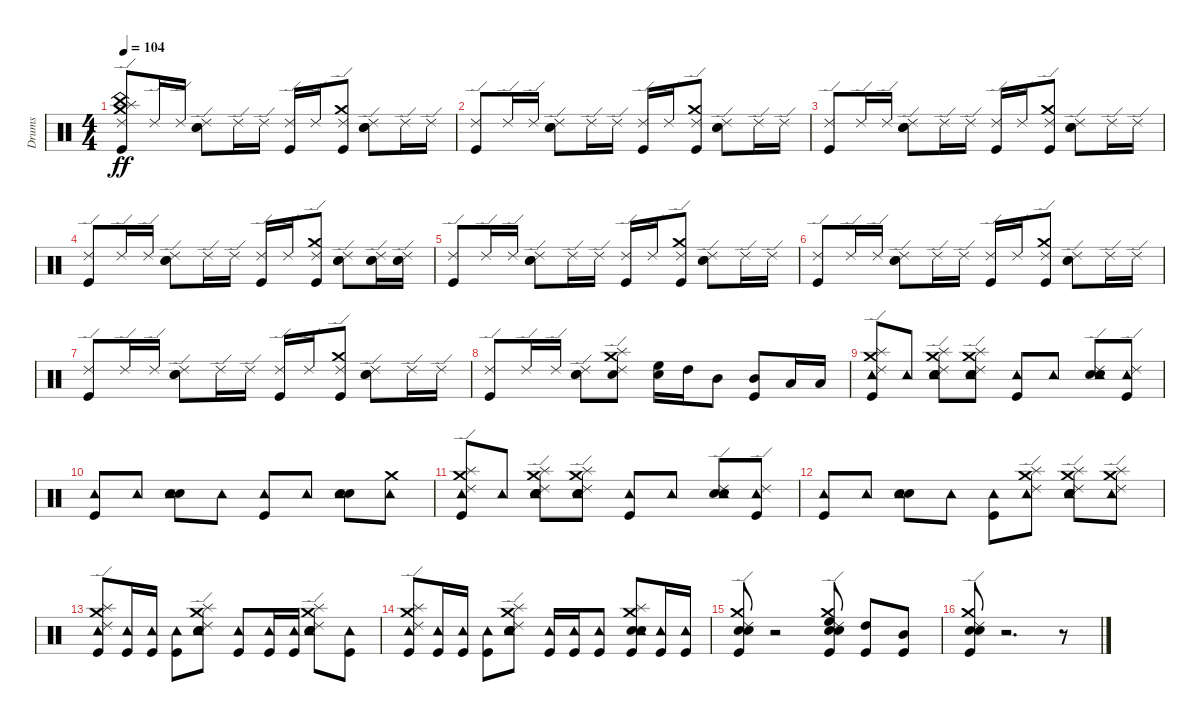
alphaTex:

\track ("Drums" "Drums") {instrument percussion}
\staff {score}
\articulation defaults
\ts (4 4)
\tempo 104
\clef neutral
\ks c
("Kick (hit)" "China (hit)" "Splash (hit)" "Crash medium (hit)" "Ride (edge) 2").8{dy ff} "Ride (edge) 2".16 "Ride (edge) 2".16 ("Snare (hit) 2" "Electric Snare (hit)" "Ride (edge) 2").8 "Ride (edge) 2".16 "Ride (edge) 2".16 ("Kick (hit)" "Ride (edge) 2").16 "Ride (edge) 2".16 ("Kick (hit)" "Crash medium (hit)" "Ride (edge) 2").8 ("Snare (hit) 2" "Electric Snare (hit)" "Ride (edge) 2").8 "Ride (edge) 2".16 "Ride (edge) 2".16 |
("Kick (hit)" "Ride (edge) 2").8 "Ride (edge) 2".16 "Ride (edge) 2".16 ("Snare (hit) 2" "Electric Snare (hit)" "Ride (edge) 2").8 "Ride (edge) 2".16 "Ride (edge) 2".16 ("Kick (hit)" "Ride (edge) 2").16 "Ride (edge) 2".16 ("Kick (hit)" "Crash medium (hit)" "Ride (edge) 2").8 ("Snare (hit) 2" "Electric Snare (hit)" "Ride (edge) 2").8 "Ride (edge) 2".16 "Ride (edge) 2".16 |
("Kick (hit)" "Ride (edge) 2").8 "Ride (edge) 2".16 "Ride (edge) 2".16 ("Snare (hit) 2" "Electric Snare (hit)" "Ride (edge) 2").8 "Ride (edge) 2".16 "Ride (edge) 2".16 ("Kick (hit)" "Ride (edge) 2").16 "Ride (edge) 2".16 ("Kick (hit)" "Crash medium (hit)" "Ride (edge) 2").8 ("Snare (hit) 2" "Electric Snare (hit)" "Ride (edge) 2").8 "Ride (edge) 2".16 "Ride (edge) 2".16 |
("Kick (hit)" "Ride (edge) 2").8 "Ride (edge) 2".16 "Ride (edge) 2".16 ("Snare (hit) 2" "Electric Snare (hit)" "Ride (edge) 2").8 "Ride (edge) 2".16 "Ride (edge) 2".16 ("Kick (hit)" "Ride (edge) 2").16 "Ride (edge) 2".16 ("Kick (hit)" "Crash medium (hit)" "Ride (edge) 2").8 ("Snare (hit) 2" "Electric Snare (hit)" "Ride (edge) 2").8 ("Snare (hit) 2" "Electric Snare (hit)" "Ride (edge) 2").16 ("Snare (hit) 2" "Electric Snare (hit)" "Ride (edge) 2").16 |
("Kick (hit)" "Ride (edge) 2").8 "Ride (edge) 2".16 "Ride (edge) 2".16 ("Snare (hit) 2" "Electric Snare (hit)" "Ride (edge) 2").8 "Ride (edge) 2".16 "Ride (edge) 2".16 ("Kick (hit)" "Ride (edge) 2").16 "Ride (edge) 2".16 ("Kick (hit)" "Crash medium (hit)" "Ride (edge) 2").8 ("Snare (hit) 2" "Electric Snare (hit)" "Ride (edge) 2").8 "Ride (edge) 2".16 "Ride (edge) 2".16 |
("Kick (hit)" "Ride (edge) 2").8 "Ride (edge) 2".16 "Ride (edge) 2".16 ("Snare (hit) 2" "Electric Snare (hit)" "Ride (edge) 2").8 "Ride (edge) 2".16 "Ride (edge) 2".16 ("Kick (hit)" "Ride (edge) 2").16 "Ride (edge) 2".16 ("Kick (hit)" "Crash medium (hit)" "Ride (edge) 2").8 ("Snare (hit) 2" "Electric Snare (hit)" "Ride (edge) 2").8 "Ride (edge) 2".16 "Ride (edge) 2".16 |
("Kick (hit)" "Ride (edge) 2").8 "Ride (edge) 2".16 "Ride (edge) 2".16 ("Snare (hit) 2" "Electric Snare (hit)" "Ride (edge) 2").8 "Ride (edge) 2".16 "Ride (edge) 2".16 ("Kick (hit)" "Ride (edge) 2").16 "Ride (edge) 2".16 ("Kick (hit)" "Crash medium (hit)" "Ride (edge) 2").8 ("Snare (hit) 2" "Electric Snare (hit)" "Ride (edge) 2").8 "Ride (edge) 2".16 "Ride (edge) 2".16 |
("Kick (hit)" "Ride (edge) 2").8 "Ride (edge) 2".16 "Ride (edge) 2".16 ("Snare (hit) 2" "Electric Snare (hit)" "Ride (edge) 2").8 ("Electric Snare (hit)" "Splash (hit)" "Crash medium (hit)" "Ride (edge) 2").8 ("Electric Snare (hit)" "High Floor Tom (hit)").16 "High Tom (hit)".16 "Mid Tom (hit)".8 ("Kick (hit)" "Mid Tom (hit)").8 "Low Tom (hit)".16 "Low Tom (hit)".16 |
("Kick (hit)" "Tambourine (hit)" "Splash (hit)" "Crash medium (hit)" "Ride (edge) 2").8 "Tambourine (hit)".8 ("Snare (hit) 2" "Electric Snare (hit)" "Tambourine (hit)" "Splash (hit)" "Crash medium (hit)" "Ride (edge) 2").8 ("Snare (hit) 2" "Electric Snare (hit)" "Tambourine (hit)" "Splash (hit)" "Crash medium (hit)" "Ride (edge) 2").8 ("Kick (hit)" "Tambourine (hit)").8 "Tambourine (hit)".8 ("Snare (hit) 2" "Electric Snare (hit)" "Tambourine (hit)" "Ride (edge) 2").8 ("Kick (hit)" "Tambourine (hit)" "Ride (edge) 2").8 |
("Kick (hit)" "Tambourine (hit)").8 "Tambourine (hit)".8 ("Snare (hit) 2" "Electric Snare (hit)" "Tambourine (hit)").8 "Tambourine (hit)".8 ("Kick (hit)" "Tambourine (hit)").8 "Tambourine (hit)".8 ("Snare (hit) 2" "Electric Snare (hit)" "Tambourine (hit)").8 ("Tambourine (hit)" "Crash medium (hit)").8 |
("Kick (hit)" "Tambourine (hit)" "Splash (hit)" "Crash medium (hit)" "Ride (edge) 2").8 "Tambourine (hit)".8 ("Snare (hit) 2" "Electric Snare (hit)" "Tambourine (hit)" "Splash (hit)" "Crash medium (hit)" "Ride (edge) 2").8 ("Snare (hit) 2" "Electric Snare (hit)" "Tambourine (hit)" "Splash (hit)" "Crash medium (hit)" "Ride (edge) 2").8 ("Kick (hit)" "Tambourine (hit)").8 "Tambourine (hit)".8 ("Snare (hit) 2" "Electric Snare (hit)" "Tambourine (hit)" "Ride (edge) 2").8 ("Kick (hit)" "Tambourine (hit)" "Ride (edge) 2").8 |
("Kick (hit)" "Tambourine (hit)").8 "Tambourine (hit)".8 ("Snare (hit) 2" "Electric Snare (hit)" "Tambourine (hit)").8 "Tambourine (hit)".8 ("Kick (hit)" "Tambourine (hit)").8 ("Tambourine (hit)" "Splash (hit)" "Crash medium (hit)" "Ride (edge) 2").8 ("Snare (hit) 2" "Electric Snare (hit)" "Tambourine (hit)" "Splash (hit)" "Crash medium (hit)" "Ride (edge) 2").8 ("Tambourine (hit)" "Splash (hit)" "Crash medium (hit)" "Ride (edge) 2").8 |
("Kick (hit)" "Tambourine (hit)" "Splash (hit)" "Crash medium (hit)" "Ride (edge) 2").8 ("Kick (hit)" "Tambourine (hit)").16 ("Kick (hit)" "Tambourine (hit)").16 ("Kick (hit)" "Tambourine (hit)").8 ("Snare (hit) 2" "Electric Snare (hit)" "Tambourine (hit)" "Splash (hit)" "Crash medium (hit)" "Ride (edge) 2").8 ("Kick (hit)" "Tambourine (hit)").8 ("Kick (hit)" "Tambourine (hit)").16 ("Kick (hit)" "Tambourine (hit)").16 ("Snare (hit) 2" "Electric Snare (hit)" "Tambourine (hit)" "Splash (hit)" "Crash medium (hit)" "Ride (edge) 2").8 ("Kick (hit)" "Tambourine (hit)").8 |
("Kick (hit)" "Tambourine (hit)" "Splash (hit)" "Crash medium (hit)" "Ride (edge) 2").8 ("Kick (hit)" "Tambourine (hit)").16 ("Kick (hit)" "Tambourine (hit)").16 ("Kick (hit)" "Tambourine (hit)").8 ("Snare (hit) 2" "Electric Snare (hit)" "Tambourine (hit)" "Splash (hit)" "Crash medium (hit)" "Ride (edge) 2").8 ("Kick (hit)" "Tambourine (hit)").16 ("Kick (hit)" "Tambourine (hit)").16 ("Kick (hit)" "Tambourine (hit)").8 ("Kick (hit)" "Snare (hit) 2" "Electric Snare (hit)" "Tambourine (hit)" "Splash (hit)" "Crash medium (hit)").8 ("Kick (hit)" "Tambourine (hit)").16 ("Kick (hit)" "Tambourine (hit)").16 |
("Kick (hit)" "Snare (hit) 2" "Electric Snare (hit)" "Crash medium (hit)" "Ride (edge) 2").8 r.2 ("Kick (hit)" "Snare (hit) 2" "Electric Snare (hit)" "High Floor Tom (hit)" "Crash medium (hit)" "Ride (edge) 2").8 ("Kick (hit)" "High Tom (hit)").8 ("Kick (hit)" "Mid Tom (hit)").8 |
("Kick (hit)" "Snare (hit) 2" "Electric Snare (hit)" "Crash medium (hit)" "Ride (edge) 2").8 r.2{d} r.8
